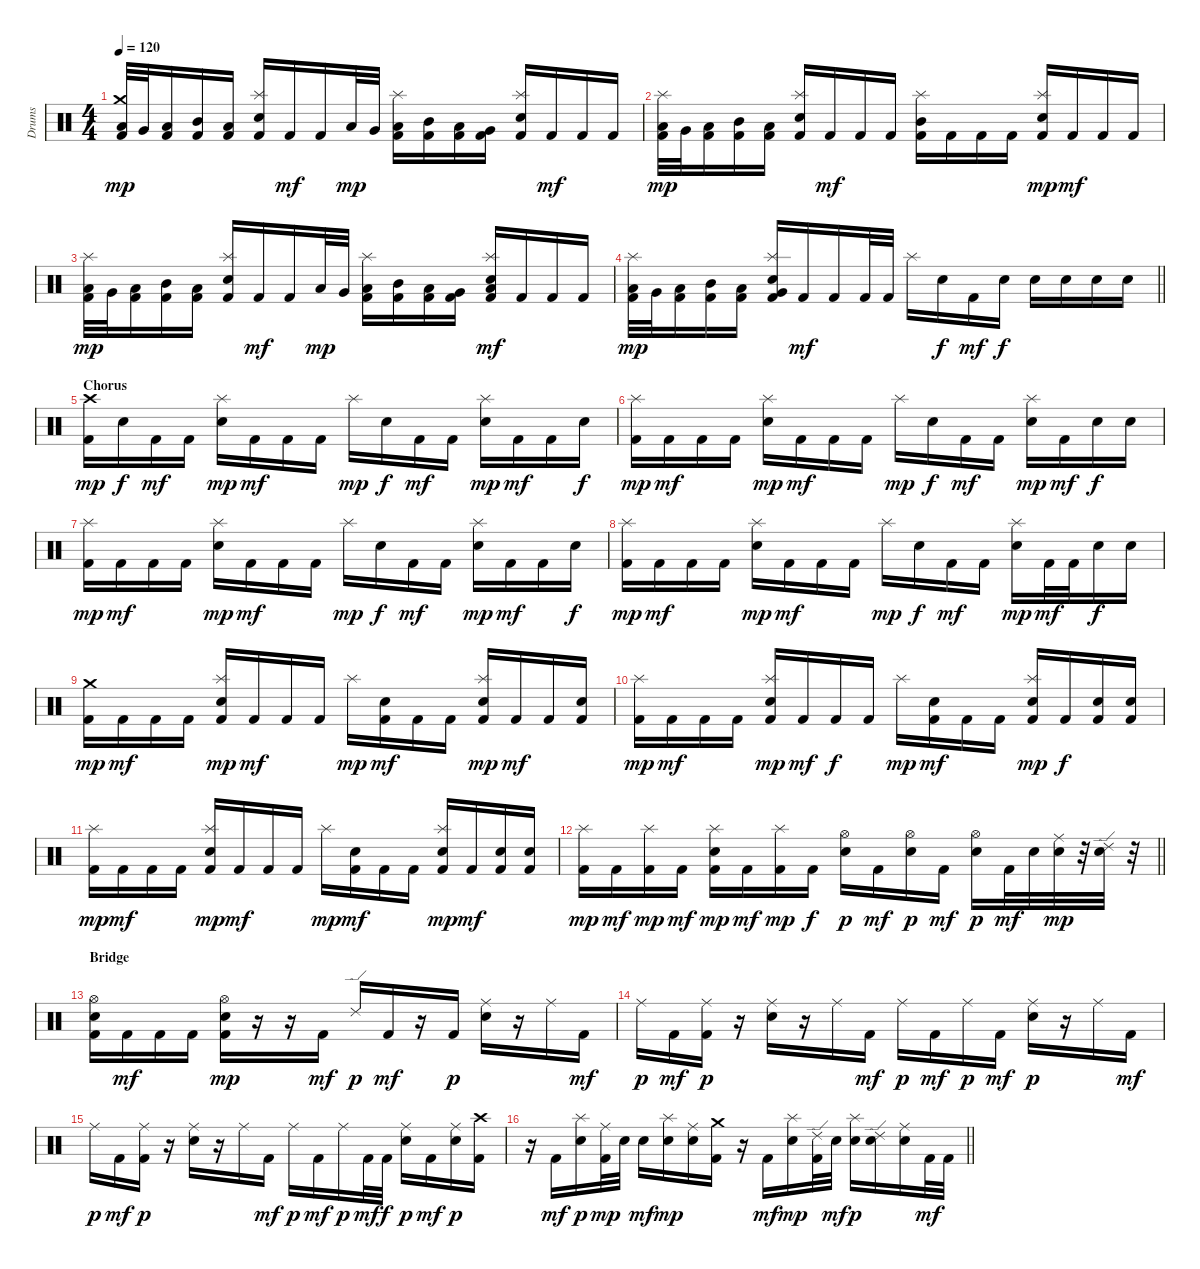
\track ("Drums" "Drums") {instrument percussion}
\staff {score}
\articulation defaults
\ts (4 4)
\tempo 120
\clef neutral
\ks c
("Kick (hit) 2" "Crash medium (hit)" "Low Tom (hit)").32{dy mp} "Very Low Tom (hit)".32 ("Kick (hit) 2" "Low Tom (hit)").16 ("Kick (hit) 2" "Mid Tom (hit)").16 ("Kick (hit) 2" "Low Tom (hit)").16 ("Kick (hit) 2" "Splash (hit)" "Snare (hit) 2").16 "Kick (hit) 2".16{dy mf} "Kick (hit) 2".16 "Low Tom (hit)".32{dy mp} "Very Low Tom (hit)".32 ("Kick (hit) 2" "Splash (hit)" "Low Tom (hit)").16 ("Kick (hit) 2" "Mid Tom (hit)").16 ("Kick (hit) 2" "Low Tom (hit)").16 ("Kick (hit) 2" "Very Low Tom (hit)").16 ("Kick (hit) 2" "Splash (hit)" "Snare (hit) 2").16 "Kick (hit) 2".16{dy mf} "Kick (hit) 2".16 "Kick (hit) 2".16 |
("Kick (hit) 2" "Splash (hit)" "Low Tom (hit)").32{dy mp} "Very Low Tom (hit)".32 ("Kick (hit) 2" "Low Tom (hit)").16 ("Kick (hit) 2" "Mid Tom (hit)").16 ("Kick (hit) 2" "Low Tom (hit)").16 ("Kick (hit) 2" "Splash (hit)" "Snare (hit) 2").16 "Kick (hit) 2".16{dy mf} "Kick (hit) 2".16 "Kick (hit) 2".16 ("Kick (hit) 2" "Splash (hit)" "Mid Tom (hit)").16 "Kick (hit) 2".16 "Kick (hit) 2".16 "Kick (hit) 2".16 ("Kick (hit) 2" "Splash (hit)" "Snare (hit) 2").16{dy mp} "Kick (hit) 2".16{dy mf} "Kick (hit) 2".16 "Kick (hit) 2".16 |
("Kick (hit) 2" "Splash (hit)" "Low Tom (hit)").32{dy mp} "Very Low Tom (hit)".32 ("Kick (hit) 2" "Low Tom (hit)").16 ("Kick (hit) 2" "Mid Tom (hit)").16 ("Kick (hit) 2" "Low Tom (hit)").16 ("Kick (hit) 2" "Splash (hit)" "Snare (hit) 2").16 "Kick (hit) 2".16{dy mf} "Kick (hit) 2".16 "Low Tom (hit)".32{dy mp} "Very Low Tom (hit)".32 ("Kick (hit) 2" "Splash (hit)" "Low Tom (hit)").16 ("Kick (hit) 2" "Mid Tom (hit)").16 ("Kick (hit) 2" "Low Tom (hit)").16 ("Kick (hit) 2" "Very Low Tom (hit)").16 ("Kick (hit) 2" "Splash (hit)" "Snare (hit) 2" "Low Floor Tom (hit)").16{dy mf} "Kick (hit) 2".16 "Kick (hit) 2".16 "Kick (hit) 2".16 |
\barLineRight lightlight
("Kick (hit) 2" "Splash (hit)" "Low Tom (hit)").32{dy mp} "Very Low Tom (hit)".32 ("Kick (hit) 2" "Low Tom (hit)").16 ("Kick (hit) 2" "Mid Tom (hit)").16 ("Kick (hit) 2" "Low Tom (hit)").16 ("Kick (hit) 2" "Splash (hit)" "Snare (hit) 2" "Very Low Tom (hit)").16 "Kick (hit) 2".16{dy mf} "Kick (hit) 2".16 "Kick (hit) 2".32 "Kick (hit) 2".32 "Splash (hit)".16 "Snare (hit) 2".16{dy f} "Kick (hit) 2".16{dy mf} "Snare (hit) 2".16{dy f} "Snare (hit) 2".16 "Snare (hit) 2".16 "Snare (hit) 2".16 "Snare (hit) 2".16 |
\section ("" "Chorus")
("Kick (hit) 2" "Crash high (hit)").16{dy mp} "Snare (hit) 2".16{dy f} "Kick (hit) 2".16{dy mf} "Kick (hit) 2".16 ("Splash (hit)" "Snare (hit) 2").16{dy mp} "Kick (hit) 2".16{dy mf} "Kick (hit) 2".16 "Kick (hit) 2".16 "Splash (hit)".16{dy mp} "Snare (hit) 2".16{dy f} "Kick (hit) 2".16{dy mf} "Kick (hit) 2".16 ("Splash (hit)" "Snare (hit) 2").16{dy mp} "Kick (hit) 2".16{dy mf} "Kick (hit) 2".16 "Snare (hit) 2".16{dy f} |
("Kick (hit) 2" "Splash (hit)").16{dy mp} "Kick (hit) 2".16{dy mf} "Kick (hit) 2".16 "Kick (hit) 2".16 ("Splash (hit)" "Snare (hit) 2").16{dy mp} "Kick (hit) 2".16{dy mf} "Kick (hit) 2".16 "Kick (hit) 2".16 "Splash (hit)".16{dy mp} "Snare (hit) 2".16{dy f} "Kick (hit) 2".16{dy mf} "Kick (hit) 2".16 ("Splash (hit)" "Snare (hit) 2").16{dy mp} "Kick (hit) 2".16{dy mf} "Snare (hit) 2".16{dy f} "Snare (hit) 2".16 |
("Kick (hit) 2" "Splash (hit)").16{dy mp} "Kick (hit) 2".16{dy mf} "Kick (hit) 2".16 "Kick (hit) 2".16 ("Splash (hit)" "Snare (hit) 2").16{dy mp} "Kick (hit) 2".16{dy mf} "Kick (hit) 2".16 "Kick (hit) 2".16 "Splash (hit)".16{dy mp} "Snare (hit) 2".16{dy f} "Kick (hit) 2".16{dy mf} "Kick (hit) 2".16 ("Splash (hit)" "Snare (hit) 2").16{dy mp} "Kick (hit) 2".16{dy mf} "Kick (hit) 2".16 "Snare (hit) 2".16{dy f} |
("Kick (hit) 2" "Splash (hit)").16{dy mp} "Kick (hit) 2".16{dy mf} "Kick (hit) 2".16 "Kick (hit) 2".16 ("Splash (hit)" "Snare (hit) 2").16{dy mp} "Kick (hit) 2".16{dy mf} "Kick (hit) 2".16 "Kick (hit) 2".16 "Splash (hit)".16{dy mp} "Snare (hit) 2".16{dy f} "Kick (hit) 2".16{dy mf} "Kick (hit) 2".16 ("Splash (hit)" "Snare (hit) 2").16{dy mp} "Kick (hit) 2".32{dy mf} "Kick (hit) 2".32 "Snare (hit) 2".16{dy f} "Snare (hit) 2".16 |
("Kick (hit) 2" "Crash medium (hit)").16{dy mp} "Kick (hit) 2".16{dy mf} "Kick (hit) 2".16 "Kick (hit) 2".16 ("Kick (hit) 2" "Splash (hit)" "Snare (hit) 2").16{dy mp} "Kick (hit) 2".16{dy mf} "Kick (hit) 2".16 "Kick (hit) 2".16 "Splash (hit)".16{dy mp} ("Kick (hit) 2" "Snare (hit) 2").16{dy mf} "Kick (hit) 2".16 "Kick (hit) 2".16 ("Kick (hit) 2" "Splash (hit)" "Snare (hit) 2").16{dy mp} "Kick (hit) 2".16{dy mf} "Kick (hit) 2".16 ("Kick (hit) 2" "Snare (hit) 2").16 |
("Kick (hit) 2" "Splash (hit)").16{dy mp} "Kick (hit) 2".16{dy mf} "Kick (hit) 2".16 "Kick (hit) 2".16 ("Kick (hit) 2" "Splash (hit)" "Snare (hit) 2").16{dy mp} "Kick (hit) 2".16{dy mf} "Kick (hit) 2".16{dy f} "Kick (hit) 2".16 "Splash (hit)".16{dy mp} ("Kick (hit) 2" "Snare (hit) 2").16{dy mf} "Kick (hit) 2".16 "Kick (hit) 2".16 ("Kick (hit) 2" "Splash (hit)" "Snare (hit) 2").16{dy mp} "Kick (hit) 2".16{dy f} ("Kick (hit) 2" "Snare (hit) 2").16 ("Kick (hit) 2" "Snare (hit) 2").16 |
("Kick (hit) 2" "Splash (hit)").16{dy mp} "Kick (hit) 2".16{dy mf} "Kick (hit) 2".16 "Kick (hit) 2".16 ("Kick (hit) 2" "Splash (hit)" "Snare (hit) 2").16{dy mp} "Kick (hit) 2".16{dy mf} "Kick (hit) 2".16 "Kick (hit) 2".16 "Splash (hit)".16{dy mp} ("Kick (hit) 2" "Snare (hit) 2").16{dy mf} "Kick (hit) 2".16 "Kick (hit) 2".16 ("Kick (hit) 2" "Splash (hit)" "Snare (hit) 2").16{dy mp} "Kick (hit) 2".16{dy mf} ("Kick (hit) 2" "Snare (hit) 2").16 ("Kick (hit) 2" "Snare (hit) 2").16 |
\barLineRight lightlight
("Kick (hit) 2" "Splash (hit)").16{dy mp} "Kick (hit) 2".16{dy mf} ("Kick (hit) 2" "Splash (hit)").16{dy mp} "Kick (hit) 2".16{dy mf} ("Kick (hit) 2" "Splash (hit)" "Snare (hit) 2").16{dy mp} "Kick (hit) 2".16{dy mf} ("Kick (hit) 2" "Splash (hit)").16{dy mp} "Kick (hit) 2".16{dy f} ("Hi-Hat (open)" "Snare (hit) 2").16{dy p} "Kick (hit) 2".16{dy mf} ("Hi-Hat (open)" "Snare (hit) 2").16{dy p} "Kick (hit) 2".16{dy mf} ("Hi-Hat (open)" "Snare (hit) 2").16{dy p} "Kick (hit) 2".32{dy mf} "Snare (hit) 2".32 ("Ride (middle)" "Snare (hit) 2").32{dy mp} r.32 ("Ride (edge) 2" "Snare (hit) 2").32 r.32 |
\section ("" "Bridge")
("Kick (hit) 2" "Hi-Hat (open)" "Snare (hit) 2").16 "Kick (hit) 2".16{dy mf} "Kick (hit) 2".16 "Kick (hit) 2".16 ("Kick (hit) 2" "Hi-Hat (open)" "Snare (hit) 2").16{dy mp} r.16 r.16 "Kick (hit) 2".16{dy mf} "Ride (edge) 2".16{dy p} "Kick (hit) 2".16{dy mf} r.16 "Kick (hit) 2".16{dy p} ("Ride (middle)" "Snare (hit) 2").16 r.16 "Ride (middle)".16 "Kick (hit) 2".16{dy mf} |
"Ride (middle)".16{dy p} "Kick (hit) 2".16{dy mf} ("Kick (hit) 2" "Ride (middle)").16{dy p} r.16 ("Ride (middle)" "Snare (hit) 2").16 r.16 "Ride (middle)".16 "Kick (hit) 2".16{dy mf} "Ride (middle)".16{dy p} "Kick (hit) 2".16{dy mf} "Ride (middle)".16{dy p} "Kick (hit) 2".16{dy mf} ("Ride (middle)" "Snare (hit) 2").16{dy p} r.16 "Ride (middle)".16 "Kick (hit) 2".16{dy mf} |
"Ride (middle)".16{dy p} "Kick (hit) 2".16{dy mf} ("Kick (hit) 2" "Ride (middle)").16{dy p} r.16 ("Ride (middle)" "Snare (hit) 2").16 r.16 "Ride (middle)".16 "Kick (hit) 2".16{dy mf} "Ride (middle)".16{dy p} "Kick (hit) 2".16{dy mf} "Ride (middle)".16{dy p} "Kick (hit) 2".32{dy mf} "Kick (hit) 2".32{dy f} ("Ride (middle)" "Snare (hit) 2").16{dy p} "Kick (hit) 2".16{dy mf} ("Ride (middle)" "Snare (hit) 2").16{dy p} ("Kick (hit) 2" "Crash high (hit)").16 |
\barLineRight lightlight
r.16 "Kick (hit) 2".16{dy mf} ("Splash (hit)" "Snare (hit) 2").16{dy p} ("Kick (hit) 2" "Ride (middle)").32{dy mp} "Snare (hit) 2".32 "Snare (hit) 2".16{dy mf} ("Splash (hit)" "Snare (hit) 2").16{dy mp} ("Ride (middle)" "Snare (hit) 2").16 ("Kick (hit) 2" "Crash medium (hit)").16 r.16 "Kick (hit) 2".16{dy mf} ("Splash (hit)" "Snare (hit) 2").16{dy mp} ("Kick (hit) 2" "Ride (edge) 2").32 "Snare (hit) 2".32{dy mf} ("Splash (hit)" "Snare (hit) 2").16{dy p} ("Ride (edge) 2" "Snare (hit) 2").16 ("Ride (middle)" "Snare (hit) 2").16 "Kick (hit) 2".32{dy mf} "Kick (hit) 2".32
